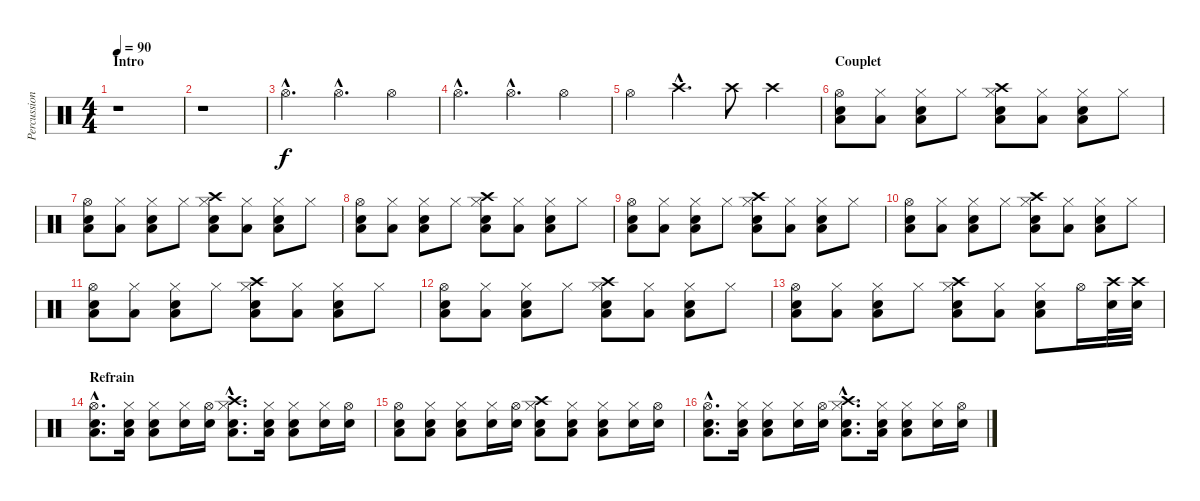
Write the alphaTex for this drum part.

\track ("Percussions" "Percussion") {instrument percussion}
\staff {score}
\articulation defaults
\ts (4 4)
\section ("" "Intro")
\tempo 90
\clef neutral
\ks c
r.1{dy f} |
r.1 |
"Hi-Hat (open)"{hac}.4{d} "Hi-Hat (open)"{hac}.4{d} "Hi-Hat (open)".4 |
"Hi-Hat (open)"{hac}.4{d} "Hi-Hat (open)"{hac}.4{d} "Hi-Hat (open)".4 |
"Hi-Hat (open)".4 "Crash high (hit)"{hac}.4{d} "Crash high (hit)".8 "Crash high (hit)".4 |
\section ("" "Couplet")
("Hi-Hat (open)" "Snare (hit) 2" "Low Floor Tom (hit)").8 ("Hi-Hat (closed)" "Low Floor Tom (hit)").8 ("Hi-Hat (closed)" "Snare (hit) 2" "Low Floor Tom (hit)").8 "Hi-Hat (closed)".8 ("Hi-Hat (closed)" "Snare (hit) 2" "Low Floor Tom (hit)" "Crash high (hit)").8 ("Hi-Hat (closed)" "Low Floor Tom (hit)").8 ("Hi-Hat (closed)" "Snare (hit) 2" "Low Floor Tom (hit)").8 "Hi-Hat (closed)".8 |
("Hi-Hat (open)" "Snare (hit) 2" "Low Floor Tom (hit)").8 ("Hi-Hat (closed)" "Low Floor Tom (hit)").8 ("Hi-Hat (closed)" "Snare (hit) 2" "Low Floor Tom (hit)").8 "Hi-Hat (closed)".8 ("Hi-Hat (closed)" "Snare (hit) 2" "Low Floor Tom (hit)" "Crash high (hit)").8 ("Hi-Hat (closed)" "Low Floor Tom (hit)").8 ("Hi-Hat (closed)" "Snare (hit) 2" "Low Floor Tom (hit)").8 "Hi-Hat (closed)".8 |
("Hi-Hat (open)" "Snare (hit) 2" "Low Floor Tom (hit)").8 ("Hi-Hat (closed)" "Low Floor Tom (hit)").8 ("Hi-Hat (closed)" "Snare (hit) 2" "Low Floor Tom (hit)").8 "Hi-Hat (closed)".8 ("Hi-Hat (closed)" "Snare (hit) 2" "Low Floor Tom (hit)" "Crash high (hit)").8 ("Hi-Hat (closed)" "Low Floor Tom (hit)").8 ("Hi-Hat (closed)" "Snare (hit) 2" "Low Floor Tom (hit)").8 "Hi-Hat (closed)".8 |
("Hi-Hat (open)" "Snare (hit) 2" "Low Floor Tom (hit)").8 ("Hi-Hat (closed)" "Low Floor Tom (hit)").8 ("Hi-Hat (closed)" "Snare (hit) 2" "Low Floor Tom (hit)").8 "Hi-Hat (closed)".8 ("Hi-Hat (closed)" "Snare (hit) 2" "Low Floor Tom (hit)" "Crash high (hit)").8 ("Hi-Hat (closed)" "Low Floor Tom (hit)").8 ("Hi-Hat (closed)" "Snare (hit) 2" "Low Floor Tom (hit)").8 "Hi-Hat (closed)".8 |
("Hi-Hat (open)" "Snare (hit) 2" "Low Floor Tom (hit)").8 ("Hi-Hat (closed)" "Low Floor Tom (hit)").8 ("Hi-Hat (closed)" "Snare (hit) 2" "Low Floor Tom (hit)").8 "Hi-Hat (closed)".8 ("Hi-Hat (closed)" "Snare (hit) 2" "Low Floor Tom (hit)" "Crash high (hit)").8 ("Hi-Hat (closed)" "Low Floor Tom (hit)").8 ("Hi-Hat (closed)" "Snare (hit) 2" "Low Floor Tom (hit)").8 "Hi-Hat (closed)".8 |
("Hi-Hat (open)" "Snare (hit) 2" "Low Floor Tom (hit)").8 ("Hi-Hat (closed)" "Low Floor Tom (hit)").8 ("Hi-Hat (closed)" "Snare (hit) 2" "Low Floor Tom (hit)").8 "Hi-Hat (closed)".8 ("Hi-Hat (closed)" "Snare (hit) 2" "Low Floor Tom (hit)" "Crash high (hit)").8 ("Hi-Hat (closed)" "Low Floor Tom (hit)").8 ("Hi-Hat (closed)" "Snare (hit) 2" "Low Floor Tom (hit)").8 "Hi-Hat (closed)".8 |
("Hi-Hat (open)" "Snare (hit) 2" "Low Floor Tom (hit)").8 ("Hi-Hat (closed)" "Low Floor Tom (hit)").8 ("Hi-Hat (closed)" "Snare (hit) 2" "Low Floor Tom (hit)").8 "Hi-Hat (closed)".8 ("Hi-Hat (closed)" "Snare (hit) 2" "Low Floor Tom (hit)" "Crash high (hit)").8 ("Hi-Hat (closed)" "Low Floor Tom (hit)").8 ("Hi-Hat (closed)" "Snare (hit) 2" "Low Floor Tom (hit)").8 "Hi-Hat (closed)".8 |
("Hi-Hat (open)" "Snare (hit) 2" "Low Floor Tom (hit)").8 ("Hi-Hat (closed)" "Low Floor Tom (hit)").8 ("Hi-Hat (closed)" "Snare (hit) 2" "Low Floor Tom (hit)").8 "Hi-Hat (closed)".8 ("Hi-Hat (closed)" "Snare (hit) 2" "Low Floor Tom (hit)" "Crash high (hit)").8 ("Hi-Hat (closed)" "Low Floor Tom (hit)").8 ("Hi-Hat (closed)" "Snare (hit) 2" "Low Floor Tom (hit)").8 "Hi-Hat (open)".16 ("Crash high (hit)" "Snare (hit) 2").32 ("Crash high (hit)" "Snare (hit) 2").32 |
\section ("" "Refrain")
("Hi-Hat (open)"{hac} "Snare (hit) 2"{hac} "Low Floor Tom (hit)"{hac}).8{d} ("Hi-Hat (closed)" "Snare (hit) 2" "Low Floor Tom (hit)").16 ("Hi-Hat (closed)" "Snare (hit) 2" "Low Floor Tom (hit)").8 ("Hi-Hat (closed)" "Snare (hit) 2").16 ("Hi-Hat (open)" "Snare (hit) 2").16 ("Hi-Hat (closed)"{hac} "Snare (hit) 2"{hac} "Low Floor Tom (hit)"{hac} "Crash high (hit)"{hac}).8{d} ("Hi-Hat (closed)" "Snare (hit) 2" "Low Floor Tom (hit)").16 ("Hi-Hat (closed)" "Snare (hit) 2" "Low Floor Tom (hit)").8 ("Hi-Hat (closed)" "Snare (hit) 2").16 ("Hi-Hat (open)" "Snare (hit) 2").16 |
("Hi-Hat (open)" "Snare (hit) 2" "Low Floor Tom (hit)").8 ("Hi-Hat (closed)" "Snare (hit) 2" "Low Floor Tom (hit)").8 ("Hi-Hat (closed)" "Snare (hit) 2" "Low Floor Tom (hit)").8 ("Hi-Hat (closed)" "Snare (hit) 2").16 ("Hi-Hat (open)" "Snare (hit) 2").16 ("Hi-Hat (closed)" "Snare (hit) 2" "Low Floor Tom (hit)" "Crash high (hit)").8 ("Hi-Hat (closed)" "Snare (hit) 2" "Low Floor Tom (hit)").8 ("Hi-Hat (closed)" "Snare (hit) 2" "Low Floor Tom (hit)").8 ("Hi-Hat (closed)" "Snare (hit) 2").16 ("Hi-Hat (open)" "Snare (hit) 2").16 |
("Hi-Hat (open)"{hac} "Snare (hit) 2"{hac} "Low Floor Tom (hit)"{hac}).8{d} ("Hi-Hat (closed)" "Snare (hit) 2" "Low Floor Tom (hit)").16 ("Hi-Hat (closed)" "Snare (hit) 2" "Low Floor Tom (hit)").8 ("Hi-Hat (closed)" "Snare (hit) 2").16 ("Hi-Hat (open)" "Snare (hit) 2").16 ("Hi-Hat (closed)"{hac} "Snare (hit) 2"{hac} "Low Floor Tom (hit)"{hac} "Crash high (hit)"{hac}).8{d} ("Hi-Hat (closed)" "Snare (hit) 2" "Low Floor Tom (hit)").16 ("Hi-Hat (closed)" "Snare (hit) 2" "Low Floor Tom (hit)").8 ("Hi-Hat (closed)" "Snare (hit) 2").16 ("Hi-Hat (open)" "Snare (hit) 2").16
